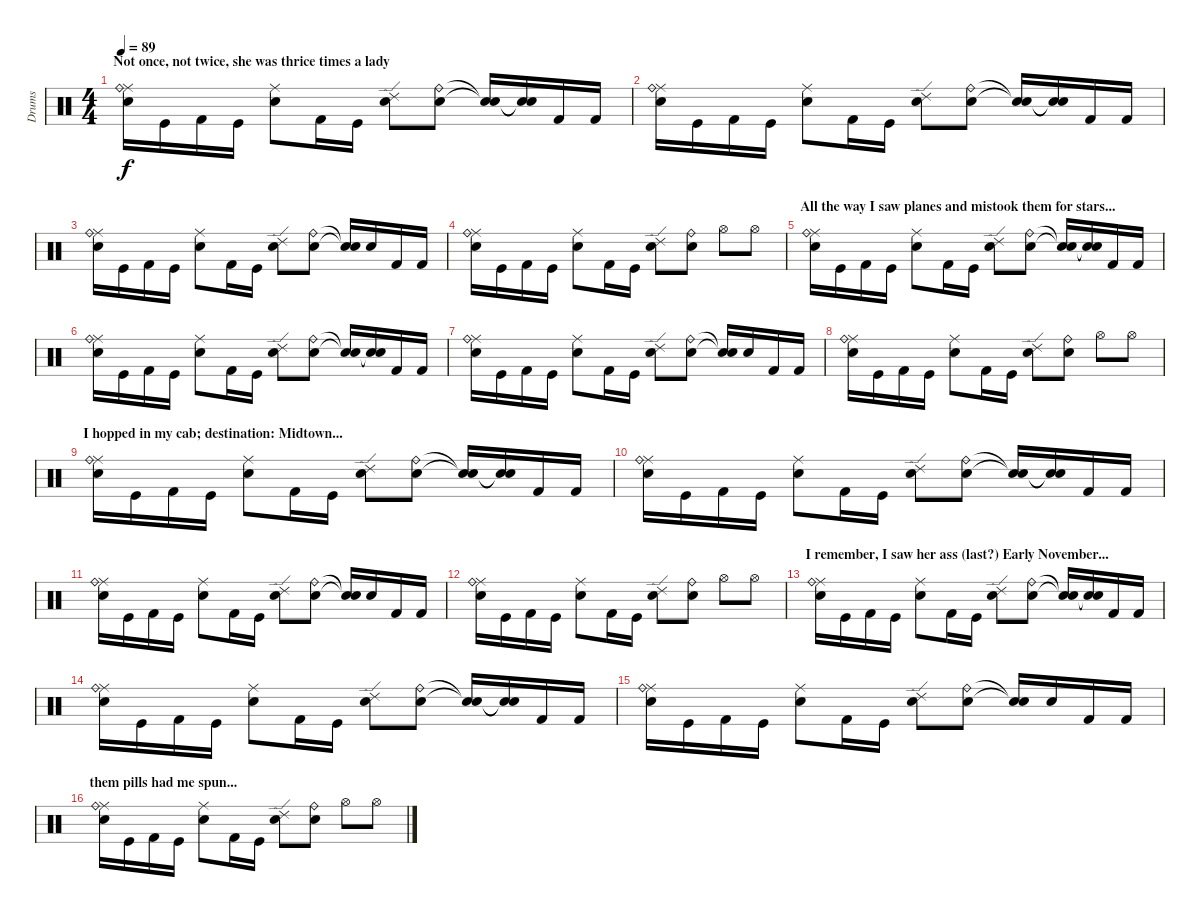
\track ("Drums" "Drums") {instrument percussion}
\staff {score}
\articulation defaults
\ts (4 4)
\section ("" "Not once, not twice, she was thrice times a lady")
\tempo 89
\clef neutral
\ks c
("Ride (middle)" "Ride (bell)" "Snare (hit) 2").16{dy f} "Kick (hit)".16 "Kick (hit) 2".16 "Kick (hit)".16 ("Ride (middle)" "Electric Snare (hit)").8 "Kick (hit) 2".16 "Kick (hit)".16 ("Ride (edge) 2" "Snare (hit) 2").8 ("Ride (bell)" "Electric Snare (hit)").8 ("Snare (hit)"{t} "Snare (hit)"{t}).16 ("Snare (hit)"{t} "Snare (hit)"{t}).16 "Kick (hit) 2".16 "Kick (hit) 2".16 |
("Ride (middle)" "Ride (bell)" "Snare (hit) 2").16 "Kick (hit)".16 "Kick (hit) 2".16 "Kick (hit)".16 ("Ride (middle)" "Electric Snare (hit)").8 "Kick (hit) 2".16 "Kick (hit)".16 ("Ride (edge) 2" "Snare (hit) 2").8 ("Ride (bell)" "Electric Snare (hit)").8 ("Snare (hit)"{t} "Snare (hit)"{t}).16 ("Snare (hit)"{t} "Snare (hit)"{t}).16 "Kick (hit) 2".16 "Kick (hit) 2".16 |
("Ride (middle)" "Ride (bell)" "Snare (hit) 2").16 "Kick (hit)".16 "Kick (hit) 2".16 "Kick (hit)".16 ("Ride (middle)" "Electric Snare (hit)").8 "Kick (hit) 2".16 "Kick (hit)".16 ("Ride (edge) 2" "Snare (hit) 2").8 ("Ride (bell)" "Electric Snare (hit)").8 ("Snare (hit)"{t} "Snare (hit)"{t}).16 "Snare (hit) 2".16 "Kick (hit) 2".16 "Kick (hit) 2".16 |
("Ride (middle)" "Ride (bell)" "Snare (hit) 2").16 "Kick (hit)".16 "Kick (hit) 2".16 "Kick (hit)".16 ("Ride (middle)" "Electric Snare (hit)").8 "Kick (hit) 2".16 "Kick (hit)".16 ("Ride (edge) 2" "Snare (hit) 2").8 ("Ride (bell)" "Electric Snare (hit)").8 "Hi-Hat (open)".8 "Hi-Hat (open)".8 |
\section ("" "All the way I saw planes and mistook them for stars...")
("Ride (middle)" "Ride (bell)" "Snare (hit) 2").16 "Kick (hit)".16 "Kick (hit) 2".16 "Kick (hit)".16 ("Ride (middle)" "Electric Snare (hit)").8 "Kick (hit) 2".16 "Kick (hit)".16 ("Ride (edge) 2" "Snare (hit) 2").8 ("Ride (bell)" "Electric Snare (hit)").8 ("Snare (hit)"{t} "Snare (hit)"{t}).16 ("Snare (hit)"{t} "Snare (hit)"{t}).16 "Kick (hit) 2".16 "Kick (hit) 2".16 |
("Ride (middle)" "Ride (bell)" "Snare (hit) 2").16 "Kick (hit)".16 "Kick (hit) 2".16 "Kick (hit)".16 ("Ride (middle)" "Electric Snare (hit)").8 "Kick (hit) 2".16 "Kick (hit)".16 ("Ride (edge) 2" "Snare (hit) 2").8 ("Ride (bell)" "Electric Snare (hit)").8 ("Snare (hit)"{t} "Snare (hit)"{t}).16 ("Snare (hit)"{t} "Snare (hit)"{t}).16 "Kick (hit) 2".16 "Kick (hit) 2".16 |
("Ride (middle)" "Ride (bell)" "Snare (hit) 2").16 "Kick (hit)".16 "Kick (hit) 2".16 "Kick (hit)".16 ("Ride (middle)" "Electric Snare (hit)").8 "Kick (hit) 2".16 "Kick (hit)".16 ("Ride (edge) 2" "Snare (hit) 2").8 ("Ride (bell)" "Electric Snare (hit)").8 ("Snare (hit)"{t} "Snare (hit)"{t}).16 "Snare (hit) 2".16 "Kick (hit) 2".16 "Kick (hit) 2".16 |
("Ride (middle)" "Ride (bell)" "Snare (hit) 2").16 "Kick (hit)".16 "Kick (hit) 2".16 "Kick (hit)".16 ("Ride (middle)" "Electric Snare (hit)").8 "Kick (hit) 2".16 "Kick (hit)".16 ("Ride (edge) 2" "Snare (hit) 2").8 ("Ride (bell)" "Electric Snare (hit)").8 "Hi-Hat (open)".8 "Hi-Hat (open)".8 |
\section ("" "I hopped in my cab; destination: Midtown...")
("Ride (middle)" "Ride (bell)" "Snare (hit) 2").16 "Kick (hit)".16 "Kick (hit) 2".16 "Kick (hit)".16 ("Ride (middle)" "Electric Snare (hit)").8 "Kick (hit) 2".16 "Kick (hit)".16 ("Ride (edge) 2" "Snare (hit) 2").8 ("Ride (bell)" "Electric Snare (hit)").8 ("Snare (hit)"{t} "Snare (hit)"{t}).16 ("Snare (hit)"{t} "Snare (hit)"{t}).16 "Kick (hit) 2".16 "Kick (hit) 2".16 |
("Ride (middle)" "Ride (bell)" "Snare (hit) 2").16 "Kick (hit)".16 "Kick (hit) 2".16 "Kick (hit)".16 ("Ride (middle)" "Electric Snare (hit)").8 "Kick (hit) 2".16 "Kick (hit)".16 ("Ride (edge) 2" "Snare (hit) 2").8 ("Ride (bell)" "Electric Snare (hit)").8 ("Snare (hit)"{t} "Snare (hit)"{t}).16 ("Snare (hit)"{t} "Snare (hit)"{t}).16 "Kick (hit) 2".16 "Kick (hit) 2".16 |
("Ride (middle)" "Ride (bell)" "Snare (hit) 2").16 "Kick (hit)".16 "Kick (hit) 2".16 "Kick (hit)".16 ("Ride (middle)" "Electric Snare (hit)").8 "Kick (hit) 2".16 "Kick (hit)".16 ("Ride (edge) 2" "Snare (hit) 2").8 ("Ride (bell)" "Electric Snare (hit)").8 ("Snare (hit)"{t} "Snare (hit)"{t}).16 "Snare (hit) 2".16 "Kick (hit) 2".16 "Kick (hit) 2".16 |
("Ride (middle)" "Ride (bell)" "Snare (hit) 2").16 "Kick (hit)".16 "Kick (hit) 2".16 "Kick (hit)".16 ("Ride (middle)" "Electric Snare (hit)").8 "Kick (hit) 2".16 "Kick (hit)".16 ("Ride (edge) 2" "Snare (hit) 2").8 ("Ride (bell)" "Electric Snare (hit)").8 "Hi-Hat (open)".8 "Hi-Hat (open)".8 |
\section ("" "I remember, I saw her ass (last?) Early November...")
("Ride (middle)" "Ride (bell)" "Snare (hit) 2").16 "Kick (hit)".16 "Kick (hit) 2".16 "Kick (hit)".16 ("Ride (middle)" "Electric Snare (hit)").8 "Kick (hit) 2".16 "Kick (hit)".16 ("Ride (edge) 2" "Snare (hit) 2").8 ("Ride (bell)" "Electric Snare (hit)").8 ("Snare (hit)"{t} "Snare (hit)"{t}).16 ("Snare (hit)"{t} "Snare (hit)"{t}).16 "Kick (hit) 2".16 "Kick (hit) 2".16 |
("Ride (middle)" "Ride (bell)" "Snare (hit) 2").16 "Kick (hit)".16 "Kick (hit) 2".16 "Kick (hit)".16 ("Ride (middle)" "Electric Snare (hit)").8 "Kick (hit) 2".16 "Kick (hit)".16 ("Ride (edge) 2" "Snare (hit) 2").8 ("Ride (bell)" "Electric Snare (hit)").8 ("Snare (hit)"{t} "Snare (hit)"{t}).16 ("Snare (hit)"{t} "Snare (hit)"{t}).16 "Kick (hit) 2".16 "Kick (hit) 2".16 |
("Ride (middle)" "Ride (bell)" "Snare (hit) 2").16 "Kick (hit)".16 "Kick (hit) 2".16 "Kick (hit)".16 ("Ride (middle)" "Electric Snare (hit)").8 "Kick (hit) 2".16 "Kick (hit)".16 ("Ride (edge) 2" "Snare (hit) 2").8 ("Ride (bell)" "Electric Snare (hit)").8 ("Snare (hit)"{t} "Snare (hit)"{t}).16 "Snare (hit) 2".16 "Kick (hit) 2".16 "Kick (hit) 2".16 |
\section ("" "them pills had me spun...")
("Ride (middle)" "Ride (bell)" "Snare (hit) 2").16 "Kick (hit)".16 "Kick (hit) 2".16 "Kick (hit)".16 ("Ride (middle)" "Electric Snare (hit)").8 "Kick (hit) 2".16 "Kick (hit)".16 ("Ride (edge) 2" "Snare (hit) 2").8 ("Ride (bell)" "Electric Snare (hit)").8 "Hi-Hat (open)".8 "Hi-Hat (open)".8
